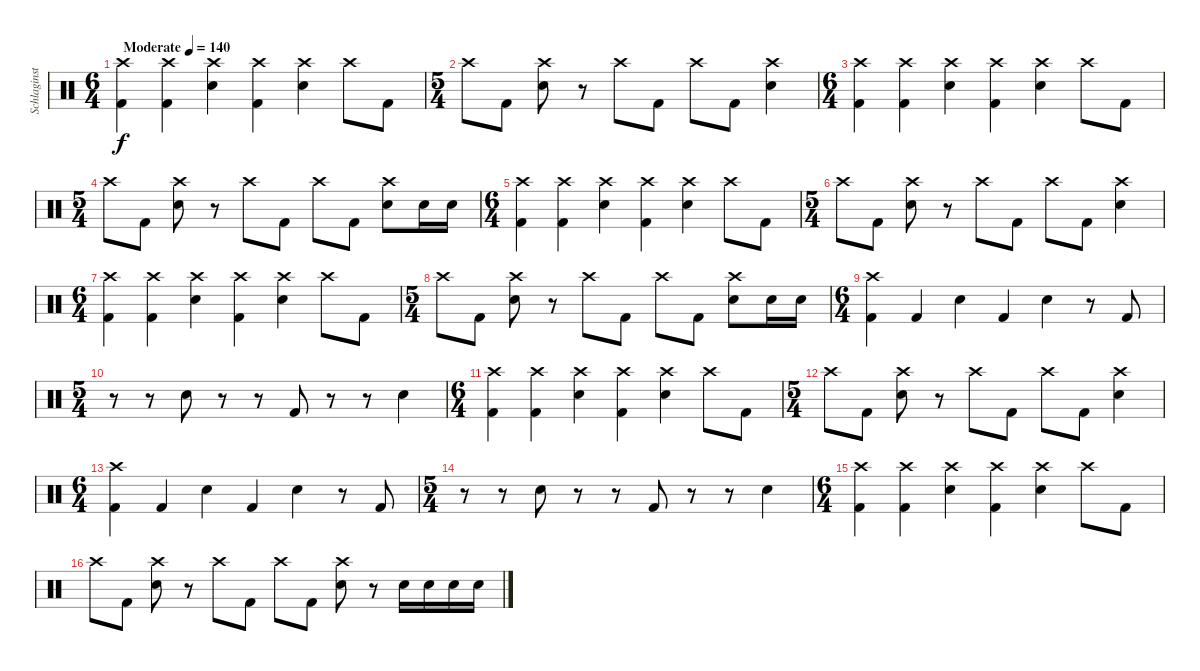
\track ("Schlaginstrumente - Auswahl" "Schlaginst") {instrument percussion}
\staff {score}
\articulation defaults
\ts (6 4)
\tempo (140 "Moderate")
\clef neutral
\ks c
("Crash high (hit)" "Kick (hit) 2").4{dy f} ("Crash high (hit)" "Kick (hit) 2").4 ("Crash high (hit)" "Electric Snare (hit)").4 ("Crash high (hit)" "Kick (hit) 2").4 ("Crash high (hit)" "Electric Snare (hit)").4 "Crash high (hit)".8 "Kick (hit) 2".8 |
\ts (5 4)
"Crash high (hit)".8 "Kick (hit) 2".8 ("Crash high (hit)" "Electric Snare (hit)").8 r.8 "Crash high (hit)".8 "Kick (hit) 2".8 "Crash high (hit)".8 "Kick (hit) 2".8 ("Crash high (hit)" "Electric Snare (hit)").4 |
\ts (6 4)
("Crash high (hit)" "Kick (hit) 2").4 ("Crash high (hit)" "Kick (hit) 2").4 ("Crash high (hit)" "Electric Snare (hit)").4 ("Crash high (hit)" "Kick (hit) 2").4 ("Crash high (hit)" "Electric Snare (hit)").4 "Crash high (hit)".8 "Kick (hit) 2".8 |
\ts (5 4)
"Crash high (hit)".8 "Kick (hit) 2".8 ("Crash high (hit)" "Electric Snare (hit)").8 r.8 "Crash high (hit)".8 "Kick (hit) 2".8 "Crash high (hit)".8 "Kick (hit) 2".8 ("Crash high (hit)" "Electric Snare (hit)").8 "Electric Snare (hit)".16 "Electric Snare (hit)".16 |
\ts (6 4)
("Crash high (hit)" "Kick (hit) 2").4 ("Crash high (hit)" "Kick (hit) 2").4 ("Crash high (hit)" "Electric Snare (hit)").4 ("Crash high (hit)" "Kick (hit) 2").4 ("Crash high (hit)" "Electric Snare (hit)").4 "Crash high (hit)".8 "Kick (hit) 2".8 |
\ts (5 4)
"Crash high (hit)".8 "Kick (hit) 2".8 ("Crash high (hit)" "Electric Snare (hit)").8 r.8 "Crash high (hit)".8 "Kick (hit) 2".8 "Crash high (hit)".8 "Kick (hit) 2".8 ("Crash high (hit)" "Electric Snare (hit)").4 |
\ts (6 4)
("Crash high (hit)" "Kick (hit) 2").4 ("Crash high (hit)" "Kick (hit) 2").4 ("Crash high (hit)" "Electric Snare (hit)").4 ("Crash high (hit)" "Kick (hit) 2").4 ("Crash high (hit)" "Electric Snare (hit)").4 "Crash high (hit)".8 "Kick (hit) 2".8 |
\ts (5 4)
"Crash high (hit)".8 "Kick (hit) 2".8 ("Crash high (hit)" "Electric Snare (hit)").8 r.8 "Crash high (hit)".8 "Kick (hit) 2".8 "Crash high (hit)".8 "Kick (hit) 2".8 ("Crash high (hit)" "Electric Snare (hit)").8 "Electric Snare (hit)".16 "Electric Snare (hit)".16 |
\ts (6 4)
("Crash high (hit)" "Kick (hit) 2").4 "Kick (hit) 2".4 "Electric Snare (hit)".4 "Kick (hit) 2".4 "Electric Snare (hit)".4 r.8 "Kick (hit) 2".8 |
\ts (5 4)
r.8 r.8 "Electric Snare (hit)".8 r.8 r.8 "Kick (hit) 2".8 r.8 r.8 "Electric Snare (hit)".4 |
\ts (6 4)
("Crash high (hit)" "Kick (hit) 2").4 ("Crash high (hit)" "Kick (hit) 2").4 ("Crash high (hit)" "Electric Snare (hit)").4 ("Crash high (hit)" "Kick (hit) 2").4 ("Crash high (hit)" "Electric Snare (hit)").4 "Crash high (hit)".8 "Kick (hit) 2".8 |
\ts (5 4)
"Crash high (hit)".8 "Kick (hit) 2".8 ("Crash high (hit)" "Electric Snare (hit)").8 r.8 "Crash high (hit)".8 "Kick (hit) 2".8 "Crash high (hit)".8 "Kick (hit) 2".8 ("Crash high (hit)" "Electric Snare (hit)").4 |
\ts (6 4)
("Crash high (hit)" "Kick (hit) 2").4 "Kick (hit) 2".4 "Electric Snare (hit)".4 "Kick (hit) 2".4 "Electric Snare (hit)".4 r.8 "Kick (hit) 2".8 |
\ts (5 4)
r.8 r.8 "Electric Snare (hit)".8 r.8 r.8 "Kick (hit) 2".8 r.8 r.8 "Electric Snare (hit)".4 |
\ts (6 4)
("Crash high (hit)" "Kick (hit) 2").4 ("Crash high (hit)" "Kick (hit) 2").4 ("Crash high (hit)" "Electric Snare (hit)").4 ("Crash high (hit)" "Kick (hit) 2").4 ("Crash high (hit)" "Electric Snare (hit)").4 "Crash high (hit)".8 "Kick (hit) 2".8 |
"Crash high (hit)".8 "Kick (hit) 2".8 ("Crash high (hit)" "Electric Snare (hit)").8 r.8 "Crash high (hit)".8 "Kick (hit) 2".8 "Crash high (hit)".8 "Kick (hit) 2".8 ("Crash high (hit)" "Electric Snare (hit)").8 r.8 "Electric Snare (hit)".16 "Electric Snare (hit)".16 "Electric Snare (hit)".16 "Electric Snare (hit)".16
